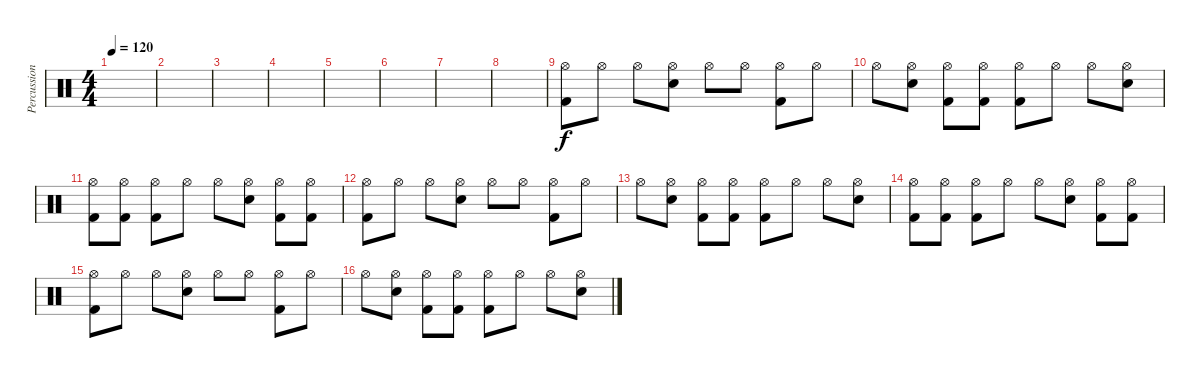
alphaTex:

\track ("Percussion" "Percussion") {instrument percussion}
\staff {score}
\articulation defaults
\ts (4 4)
\tempo 120
\clef neutral
\ks c
|
|
|
|
|
|
|
|
("Hi-Hat (open)" "Kick (hit) 2").8 "Hi-Hat (open)".8 "Hi-Hat (open)".8 ("Hi-Hat (open)" "Electric Snare (hit)").8 "Hi-Hat (open)".8 "Hi-Hat (open)".8 ("Hi-Hat (open)" "Kick (hit) 2").8 "Hi-Hat (open)".8 |
"Hi-Hat (open)".8 ("Hi-Hat (open)" "Electric Snare (hit)").8 ("Hi-Hat (open)" "Kick (hit) 2").8 ("Hi-Hat (open)" "Kick (hit) 2").8 ("Hi-Hat (open)" "Kick (hit) 2").8 "Hi-Hat (open)".8 "Hi-Hat (open)".8 ("Hi-Hat (open)" "Electric Snare (hit)").8 |
("Hi-Hat (open)" "Kick (hit) 2").8 ("Hi-Hat (open)" "Kick (hit) 2").8 ("Hi-Hat (open)" "Kick (hit) 2").8 "Hi-Hat (open)".8 "Hi-Hat (open)".8 ("Hi-Hat (open)" "Electric Snare (hit)").8 ("Hi-Hat (open)" "Kick (hit) 2").8 ("Hi-Hat (open)" "Kick (hit) 2").8 |
("Hi-Hat (open)" "Kick (hit) 2").8 "Hi-Hat (open)".8 "Hi-Hat (open)".8 ("Hi-Hat (open)" "Electric Snare (hit)").8 "Hi-Hat (open)".8 "Hi-Hat (open)".8 ("Hi-Hat (open)" "Kick (hit) 2").8 "Hi-Hat (open)".8 |
"Hi-Hat (open)".8 ("Hi-Hat (open)" "Electric Snare (hit)").8 ("Hi-Hat (open)" "Kick (hit) 2").8 ("Hi-Hat (open)" "Kick (hit) 2").8 ("Hi-Hat (open)" "Kick (hit) 2").8 "Hi-Hat (open)".8 "Hi-Hat (open)".8 ("Hi-Hat (open)" "Electric Snare (hit)").8 |
("Hi-Hat (open)" "Kick (hit) 2").8 ("Hi-Hat (open)" "Kick (hit) 2").8 ("Hi-Hat (open)" "Kick (hit) 2").8 "Hi-Hat (open)".8 "Hi-Hat (open)".8 ("Hi-Hat (open)" "Electric Snare (hit)").8 ("Hi-Hat (open)" "Kick (hit) 2").8 ("Hi-Hat (open)" "Kick (hit) 2").8 |
("Hi-Hat (open)" "Kick (hit) 2").8 "Hi-Hat (open)".8 "Hi-Hat (open)".8 ("Hi-Hat (open)" "Electric Snare (hit)").8 "Hi-Hat (open)".8 "Hi-Hat (open)".8 ("Hi-Hat (open)" "Kick (hit) 2").8 "Hi-Hat (open)".8 |
"Hi-Hat (open)".8 ("Hi-Hat (open)" "Electric Snare (hit)").8 ("Hi-Hat (open)" "Kick (hit) 2").8 ("Hi-Hat (open)" "Kick (hit) 2").8 ("Hi-Hat (open)" "Kick (hit) 2").8 "Hi-Hat (open)".8 "Hi-Hat (open)".8 ("Hi-Hat (open)" "Electric Snare (hit)").8
